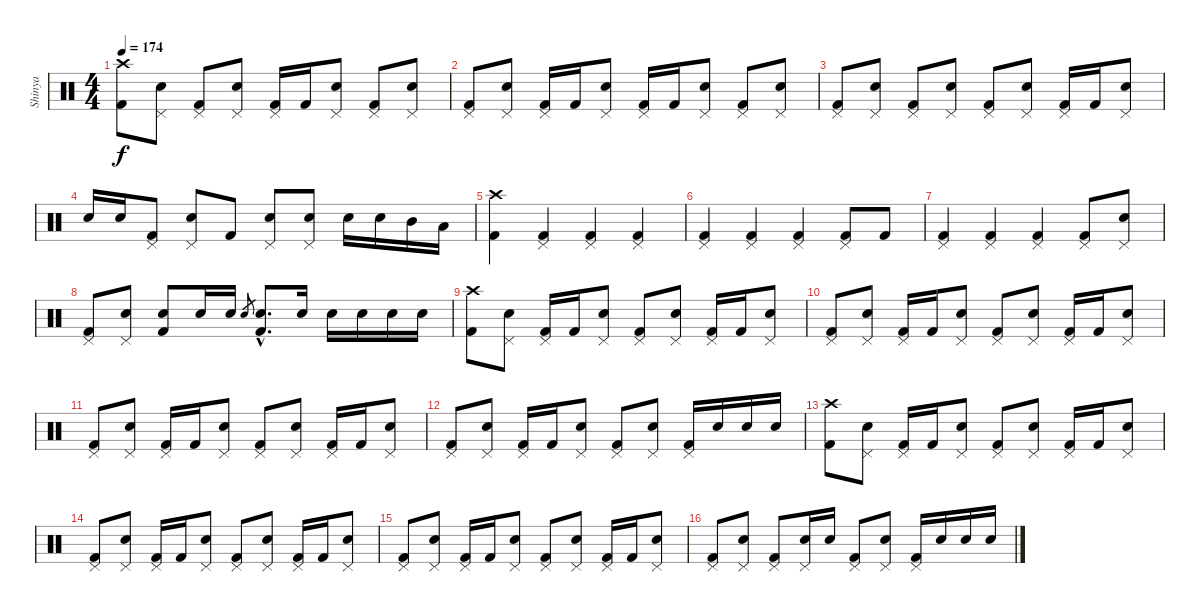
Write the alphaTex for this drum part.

\track ("Shinya" "Shinya") {instrument percussion}
\staff {score}
\articulation defaults
\ts (4 4)
\tempo 174
\clef neutral
\ks c
("Crash high (hit)" "Kick (hit) 2").8{dy f} ("Pedal Hi-Hat (hit)" "Electric Snare (hit)").8 ("Pedal Hi-Hat (hit)" "Kick (hit) 2").8 ("Pedal Hi-Hat (hit)" "Electric Snare (hit)").8 ("Pedal Hi-Hat (hit)" "Kick (hit) 2").16 "Kick (hit) 2".16 ("Pedal Hi-Hat (hit)" "Electric Snare (hit)").8 ("Pedal Hi-Hat (hit)" "Kick (hit) 2").8 ("Pedal Hi-Hat (hit)" "Electric Snare (hit)").8 |
("Pedal Hi-Hat (hit)" "Kick (hit) 2").8 ("Pedal Hi-Hat (hit)" "Electric Snare (hit)").8 ("Pedal Hi-Hat (hit)" "Kick (hit) 2").16 "Kick (hit) 2".16 ("Pedal Hi-Hat (hit)" "Electric Snare (hit)").8 ("Pedal Hi-Hat (hit)" "Kick (hit) 2").16 "Kick (hit) 2".16 ("Pedal Hi-Hat (hit)" "Electric Snare (hit)").8 ("Pedal Hi-Hat (hit)" "Kick (hit) 2").8 ("Pedal Hi-Hat (hit)" "Electric Snare (hit)").8 |
("Pedal Hi-Hat (hit)" "Kick (hit) 2").8 ("Pedal Hi-Hat (hit)" "Electric Snare (hit)").8 ("Pedal Hi-Hat (hit)" "Kick (hit) 2").8 ("Pedal Hi-Hat (hit)" "Electric Snare (hit)").8 ("Pedal Hi-Hat (hit)" "Kick (hit) 2").8 ("Pedal Hi-Hat (hit)" "Electric Snare (hit)").8 ("Pedal Hi-Hat (hit)" "Kick (hit) 2").16 "Kick (hit) 2".16 ("Pedal Hi-Hat (hit)" "Electric Snare (hit)").8 |
"Electric Snare (hit)".16 "Electric Snare (hit)".16 ("Pedal Hi-Hat (hit)" "Kick (hit) 2").8 ("Pedal Hi-Hat (hit)" "Electric Snare (hit)").8 "Kick (hit) 2".8 ("Pedal Hi-Hat (hit)" "Electric Snare (hit)").8 ("Pedal Hi-Hat (hit)" "Electric Snare (hit)").8 "Electric Snare (hit)".16 "Electric Snare (hit)".16 "Mid Tom (hit)".16 "Low Tom (hit)".16 |
("Crash high (hit)" "Kick (hit) 2").4 ("Pedal Hi-Hat (hit)" "Kick (hit) 2").4 ("Pedal Hi-Hat (hit)" "Kick (hit) 2").4 ("Pedal Hi-Hat (hit)" "Kick (hit) 2").4 |
("Pedal Hi-Hat (hit)" "Kick (hit) 2").4 ("Pedal Hi-Hat (hit)" "Kick (hit) 2").4 ("Pedal Hi-Hat (hit)" "Kick (hit) 2").4 ("Pedal Hi-Hat (hit)" "Kick (hit) 2").8 "Kick (hit) 2".8 |
("Pedal Hi-Hat (hit)" "Kick (hit) 2").4 ("Pedal Hi-Hat (hit)" "Kick (hit) 2").4 ("Pedal Hi-Hat (hit)" "Kick (hit) 2").4 ("Pedal Hi-Hat (hit)" "Kick (hit) 2").8 ("Pedal Hi-Hat (hit)" "Electric Snare (hit)").8 |
("Pedal Hi-Hat (hit)" "Kick (hit) 2").8 ("Pedal Hi-Hat (hit)" "Electric Snare (hit)").8 ("Electric Snare (hit)" "Kick (hit) 2").8 "Electric Snare (hit)".16 "Electric Snare (hit)".16 "Electric Snare (hit)".8{gr} ("Electric Snare (hit)"{hac} "Kick (hit) 2"{hac}).8{d} "Electric Snare (hit)".16 "Electric Snare (hit)".16 "Electric Snare (hit)".16 "Electric Snare (hit)".16 "Electric Snare (hit)".16 |
("Crash high (hit)" "Kick (hit) 2").8 ("Pedal Hi-Hat (hit)" "Electric Snare (hit)").8 ("Pedal Hi-Hat (hit)" "Kick (hit) 2").16 "Kick (hit) 2".16 ("Pedal Hi-Hat (hit)" "Electric Snare (hit)").8 ("Pedal Hi-Hat (hit)" "Kick (hit) 2").8 ("Pedal Hi-Hat (hit)" "Electric Snare (hit)").8 ("Pedal Hi-Hat (hit)" "Kick (hit) 2").16 "Kick (hit) 2".16 ("Pedal Hi-Hat (hit)" "Electric Snare (hit)").8 |
("Pedal Hi-Hat (hit)" "Kick (hit) 2").8 ("Pedal Hi-Hat (hit)" "Electric Snare (hit)").8 ("Pedal Hi-Hat (hit)" "Kick (hit) 2").16 "Kick (hit) 2".16 ("Pedal Hi-Hat (hit)" "Electric Snare (hit)").8 ("Pedal Hi-Hat (hit)" "Kick (hit) 2").8 ("Pedal Hi-Hat (hit)" "Electric Snare (hit)").8 ("Pedal Hi-Hat (hit)" "Kick (hit) 2").16 "Kick (hit) 2".16 ("Pedal Hi-Hat (hit)" "Electric Snare (hit)").8 |
("Pedal Hi-Hat (hit)" "Kick (hit) 2").8 ("Pedal Hi-Hat (hit)" "Electric Snare (hit)").8 ("Pedal Hi-Hat (hit)" "Kick (hit) 2").16 "Kick (hit) 2".16 ("Pedal Hi-Hat (hit)" "Electric Snare (hit)").8 ("Pedal Hi-Hat (hit)" "Kick (hit) 2").8 ("Pedal Hi-Hat (hit)" "Electric Snare (hit)").8 ("Pedal Hi-Hat (hit)" "Kick (hit) 2").16 "Kick (hit) 2".16 ("Pedal Hi-Hat (hit)" "Electric Snare (hit)").8 |
("Pedal Hi-Hat (hit)" "Kick (hit) 2").8 ("Pedal Hi-Hat (hit)" "Electric Snare (hit)").8 ("Pedal Hi-Hat (hit)" "Kick (hit) 2").16 "Kick (hit) 2".16 ("Pedal Hi-Hat (hit)" "Electric Snare (hit)").8 ("Pedal Hi-Hat (hit)" "Kick (hit) 2").8 ("Pedal Hi-Hat (hit)" "Electric Snare (hit)").8 ("Pedal Hi-Hat (hit)" "Kick (hit) 2").16 "Electric Snare (hit)".16 "Electric Snare (hit)".16 "Electric Snare (hit)".16 |
("Crash high (hit)" "Kick (hit) 2").8 ("Pedal Hi-Hat (hit)" "Electric Snare (hit)").8 ("Pedal Hi-Hat (hit)" "Kick (hit) 2").16 "Kick (hit) 2".16 ("Pedal Hi-Hat (hit)" "Electric Snare (hit)").8 ("Pedal Hi-Hat (hit)" "Kick (hit) 2").8 ("Pedal Hi-Hat (hit)" "Electric Snare (hit)").8 ("Pedal Hi-Hat (hit)" "Kick (hit) 2").16 "Kick (hit) 2".16 ("Pedal Hi-Hat (hit)" "Electric Snare (hit)").8 |
("Pedal Hi-Hat (hit)" "Kick (hit) 2").8 ("Pedal Hi-Hat (hit)" "Electric Snare (hit)").8 ("Pedal Hi-Hat (hit)" "Kick (hit) 2").16 "Kick (hit) 2".16 ("Pedal Hi-Hat (hit)" "Electric Snare (hit)").8 ("Pedal Hi-Hat (hit)" "Kick (hit) 2").8 ("Pedal Hi-Hat (hit)" "Electric Snare (hit)").8 ("Pedal Hi-Hat (hit)" "Kick (hit) 2").16 "Kick (hit) 2".16 ("Pedal Hi-Hat (hit)" "Electric Snare (hit)").8 |
("Pedal Hi-Hat (hit)" "Kick (hit) 2").8 ("Pedal Hi-Hat (hit)" "Electric Snare (hit)").8 ("Pedal Hi-Hat (hit)" "Kick (hit) 2").16 "Kick (hit) 2".16 ("Pedal Hi-Hat (hit)" "Electric Snare (hit)").8 ("Pedal Hi-Hat (hit)" "Kick (hit) 2").8 ("Pedal Hi-Hat (hit)" "Electric Snare (hit)").8 ("Pedal Hi-Hat (hit)" "Kick (hit) 2").16 "Kick (hit) 2".16 ("Pedal Hi-Hat (hit)" "Electric Snare (hit)").8 |
("Pedal Hi-Hat (hit)" "Kick (hit) 2").8 ("Pedal Hi-Hat (hit)" "Electric Snare (hit)").8 ("Pedal Hi-Hat (hit)" "Kick (hit) 2").8 ("Pedal Hi-Hat (hit)" "Electric Snare (hit)").16 "Electric Snare (hit)".16 ("Pedal Hi-Hat (hit)" "Kick (hit) 2").8 ("Pedal Hi-Hat (hit)" "Electric Snare (hit)").8 ("Pedal Hi-Hat (hit)" "Kick (hit) 2").16 "Electric Snare (hit)".16 "Electric Snare (hit)".16 "Electric Snare (hit)".16
